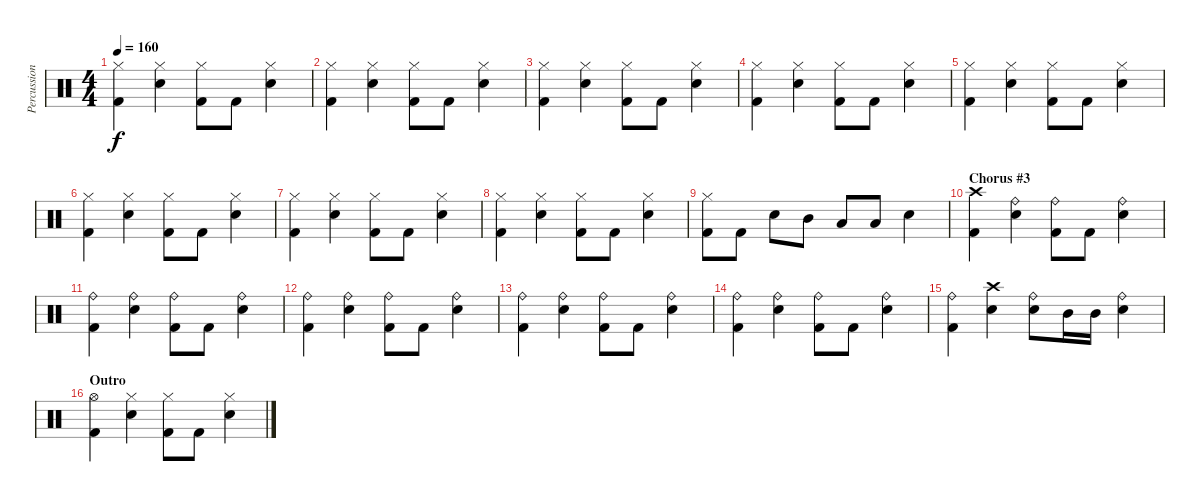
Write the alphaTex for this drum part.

\track ("Percussion" "Percussion") {instrument percussion}
\staff {score}
\articulation defaults
\ts (4 4)
\tempo 160
\clef neutral
\ks c
("Hi-Hat (closed)" "Kick (hit) 2").4{dy f} ("Hi-Hat (closed)" "Electric Snare (hit)").4 ("Hi-Hat (closed)" "Kick (hit) 2").8 "Kick (hit) 2".8 ("Hi-Hat (closed)" "Electric Snare (hit)").4 |
("Hi-Hat (closed)" "Kick (hit) 2").4 ("Hi-Hat (closed)" "Electric Snare (hit)").4 ("Hi-Hat (closed)" "Kick (hit) 2").8 "Kick (hit) 2".8 ("Hi-Hat (closed)" "Electric Snare (hit)").4 |
("Hi-Hat (closed)" "Kick (hit) 2").4 ("Hi-Hat (closed)" "Electric Snare (hit)").4 ("Hi-Hat (closed)" "Kick (hit) 2").8 "Kick (hit) 2".8 ("Hi-Hat (closed)" "Electric Snare (hit)").4 |
("Hi-Hat (closed)" "Kick (hit) 2").4 ("Hi-Hat (closed)" "Electric Snare (hit)").4 ("Hi-Hat (closed)" "Kick (hit) 2").8 "Kick (hit) 2".8 ("Hi-Hat (closed)" "Electric Snare (hit)").4 |
("Hi-Hat (closed)" "Kick (hit) 2").4 ("Hi-Hat (closed)" "Electric Snare (hit)").4 ("Hi-Hat (closed)" "Kick (hit) 2").8 "Kick (hit) 2".8 ("Hi-Hat (closed)" "Electric Snare (hit)").4 |
("Hi-Hat (closed)" "Kick (hit) 2").4 ("Hi-Hat (closed)" "Electric Snare (hit)").4 ("Hi-Hat (closed)" "Kick (hit) 2").8 "Kick (hit) 2".8 ("Hi-Hat (closed)" "Electric Snare (hit)").4 |
("Hi-Hat (closed)" "Kick (hit) 2").4 ("Hi-Hat (closed)" "Electric Snare (hit)").4 ("Hi-Hat (closed)" "Kick (hit) 2").8 "Kick (hit) 2".8 ("Hi-Hat (closed)" "Electric Snare (hit)").4 |
("Hi-Hat (closed)" "Kick (hit) 2").4 ("Hi-Hat (closed)" "Electric Snare (hit)").4 ("Hi-Hat (closed)" "Kick (hit) 2").8 "Kick (hit) 2".8 ("Hi-Hat (closed)" "Electric Snare (hit)").4 |
("Hi-Hat (closed)" "Kick (hit) 2").8 "Kick (hit) 2".8 "Electric Snare (hit)".8 "Mid Tom (hit)".8 "Low Tom (hit)".8 "Low Tom (hit)".8 "Electric Snare (hit)".4 |
\section ("" "Chorus #3")
("Crash high (hit)" "Kick (hit) 2").4 ("Ride (bell)" "Electric Snare (hit)").4 ("Ride (bell)" "Kick (hit) 2").8 "Kick (hit) 2".8 ("Ride (bell)" "Electric Snare (hit)").4 |
("Ride (bell)" "Kick (hit) 2").4 ("Ride (bell)" "Electric Snare (hit)").4 ("Ride (bell)" "Kick (hit) 2").8 "Kick (hit) 2".8 ("Ride (bell)" "Electric Snare (hit)").4 |
("Ride (bell)" "Kick (hit) 2").4 ("Ride (bell)" "Electric Snare (hit)").4 ("Ride (bell)" "Kick (hit) 2").8 "Kick (hit) 2".8 ("Ride (bell)" "Electric Snare (hit)").4 |
("Ride (bell)" "Kick (hit) 2").4 ("Ride (bell)" "Electric Snare (hit)").4 ("Ride (bell)" "Kick (hit) 2").8 "Kick (hit) 2".8 ("Ride (bell)" "Electric Snare (hit)").4 |
("Ride (bell)" "Kick (hit) 2").4 ("Ride (bell)" "Electric Snare (hit)").4 ("Ride (bell)" "Kick (hit) 2").8 "Kick (hit) 2".8 ("Ride (bell)" "Electric Snare (hit)").4 |
("Ride (bell)" "Kick (hit) 2").4 ("Crash high (hit)" "Electric Snare (hit)").4 ("Ride (bell)" "Electric Snare (hit)").8 "Mid Tom (hit)".16 "Mid Tom (hit)".16 ("Ride (bell)" "Electric Snare (hit)").4 |
\section ("" "Outro")
("Hi-Hat (open)" "Kick (hit) 2").4 ("Hi-Hat (closed)" "Electric Snare (hit)").4 ("Hi-Hat (closed)" "Kick (hit) 2").8 "Kick (hit) 2".8 ("Hi-Hat (closed)" "Electric Snare (hit)").4
